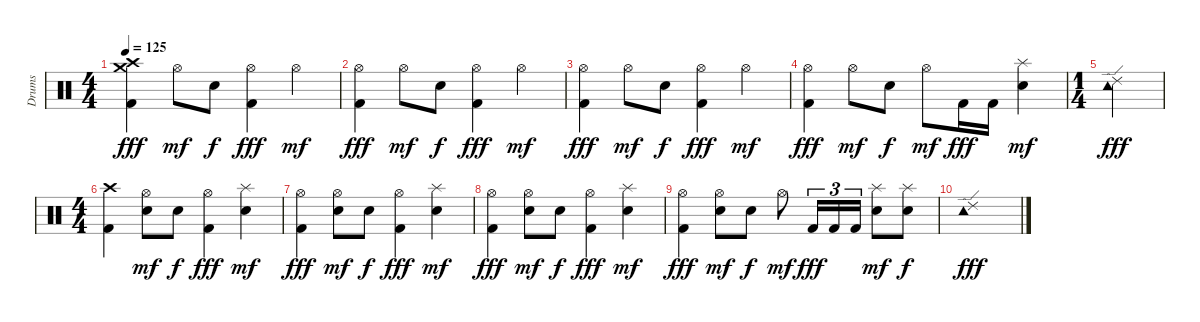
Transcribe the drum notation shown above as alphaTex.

\track ("Drums" "Drums") {instrument percussion}
\staff {score}
\articulation defaults
\ts (4 4)
\tempo 125
\clef neutral
\ks c
("Crash high (hit)" "Crash medium (hit)" "Kick (hit) 2").4{dy fff} "Hi-Hat (open)".8{dy mf} "Electric Snare (hit)".8{dy f} ("Hi-Hat (open)" "Kick (hit) 2").4{dy fff} "Hi-Hat (open)".4{dy mf} |
("Hi-Hat (open)" "Kick (hit) 2").4{dy fff} "Hi-Hat (open)".8{dy mf} "Electric Snare (hit)".8{dy f} ("Hi-Hat (open)" "Kick (hit) 2").4{dy fff} "Hi-Hat (open)".4{dy mf} |
("Hi-Hat (open)" "Kick (hit) 2").4{dy fff} "Hi-Hat (open)".8{dy mf} "Electric Snare (hit)".8{dy f} ("Hi-Hat (open)" "Kick (hit) 2").4{dy fff} "Hi-Hat (open)".4{dy mf} |
("Hi-Hat (open)" "Kick (hit) 2").4{dy fff} "Hi-Hat (open)".8{dy mf} "Electric Snare (hit)".8{dy f} "Hi-Hat (open)".8{dy mf} "Kick (hit) 2".16{dy fff} "Kick (hit) 2".16 ("Splash (hit)" "Electric Snare (hit)").4{dy mf} |
\ts (1 4)
("Tambourine (hit)" "Ride (edge) 2").4{dy fff} |
\ts (4 4)
("Crash high (hit)" "Kick (hit) 2").4 ("Hi-Hat (open)" "Electric Snare (hit)").8{dy mf} "Electric Snare (hit)".8{dy f} ("Hi-Hat (open)" "Kick (hit) 2").4{dy fff} ("Splash (hit)" "Electric Snare (hit)").4{dy mf} |
("Hi-Hat (open)" "Kick (hit) 2").4{dy fff} ("Hi-Hat (open)" "Electric Snare (hit)").8{dy mf} "Electric Snare (hit)".8{dy f} ("Hi-Hat (open)" "Kick (hit) 2").4{dy fff} ("Splash (hit)" "Electric Snare (hit)").4{dy mf} |
("Hi-Hat (open)" "Kick (hit) 2").4{dy fff} ("Hi-Hat (open)" "Electric Snare (hit)").8{dy mf} "Electric Snare (hit)".8{dy f} ("Hi-Hat (open)" "Kick (hit) 2").4{dy fff} ("Splash (hit)" "Electric Snare (hit)").4{dy mf} |
("Hi-Hat (open)" "Kick (hit) 2").4{dy fff} ("Hi-Hat (open)" "Electric Snare (hit)").8{dy mf} "Electric Snare (hit)".8{dy f} "Hi-Hat (open)".8{dy mf} "Kick (hit) 2".16{tu (3 2) dy fff} "Kick (hit) 2".16{tu (3 2)} "Kick (hit) 2".16{tu (3 2)} ("Splash (hit)" "Electric Snare (hit)").8{dy mf} ("Splash (hit)" "Electric Snare (hit)").8{dy f} |
("Tambourine (hit)" "Ride (edge) 2").1{dy fff}
